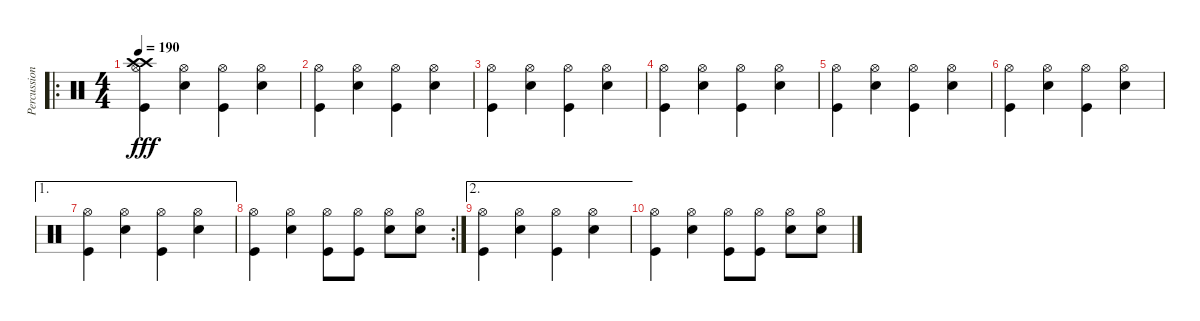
\track ("Percussion" "Percussion") {instrument percussion}
\staff {score}
\articulation defaults
\ro
\ts (4 4)
\tempo 190
\clef neutral
\ks c
("Crash high (hit)" "Crash high (hit)" "Kick (hit)" "Hi-Hat (open)").4{dy fff} ("Snare (hit) 2" "Hi-Hat (open)").4 ("Kick (hit)" "Hi-Hat (open)").4 ("Snare (hit) 2" "Hi-Hat (open)").4 |
("Kick (hit)" "Hi-Hat (open)").4 ("Snare (hit) 2" "Hi-Hat (open)").4 ("Kick (hit)" "Hi-Hat (open)").4 ("Snare (hit) 2" "Hi-Hat (open)").4 |
("Kick (hit)" "Hi-Hat (open)").4 ("Snare (hit) 2" "Hi-Hat (open)").4 ("Kick (hit)" "Hi-Hat (open)").4 ("Snare (hit) 2" "Hi-Hat (open)").4 |
("Kick (hit)" "Hi-Hat (open)").4 ("Snare (hit) 2" "Hi-Hat (open)").4 ("Kick (hit)" "Hi-Hat (open)").4 ("Snare (hit) 2" "Hi-Hat (open)").4 |
("Kick (hit)" "Hi-Hat (open)").4 ("Snare (hit) 2" "Hi-Hat (open)").4 ("Kick (hit)" "Hi-Hat (open)").4 ("Snare (hit) 2" "Hi-Hat (open)").4 |
("Kick (hit)" "Hi-Hat (open)").4 ("Snare (hit) 2" "Hi-Hat (open)").4 ("Kick (hit)" "Hi-Hat (open)").4 ("Snare (hit) 2" "Hi-Hat (open)").4 |
\ae 1
("Kick (hit)" "Hi-Hat (open)").4 ("Snare (hit) 2" "Hi-Hat (open)").4 ("Kick (hit)" "Hi-Hat (open)").4 ("Snare (hit) 2" "Hi-Hat (open)").4 |
\rc 2
("Kick (hit)" "Hi-Hat (open)").4 ("Snare (hit) 2" "Hi-Hat (open)").4 ("Kick (hit)" "Hi-Hat (open)").8 ("Kick (hit)" "Hi-Hat (open)").8 ("Snare (hit) 2" "Hi-Hat (open)").8 ("Snare (hit) 2" "Hi-Hat (open)").8 |
\ae 2
("Kick (hit)" "Hi-Hat (open)").4 ("Snare (hit) 2" "Hi-Hat (open)").4 ("Kick (hit)" "Hi-Hat (open)").4 ("Snare (hit) 2" "Hi-Hat (open)").4 |
("Kick (hit)" "Hi-Hat (open)").4 ("Snare (hit) 2" "Hi-Hat (open)").4 ("Kick (hit)" "Hi-Hat (open)").8 ("Kick (hit)" "Hi-Hat (open)").8 ("Snare (hit) 2" "Hi-Hat (open)").8 ("Snare (hit) 2" "Hi-Hat (open)").8
